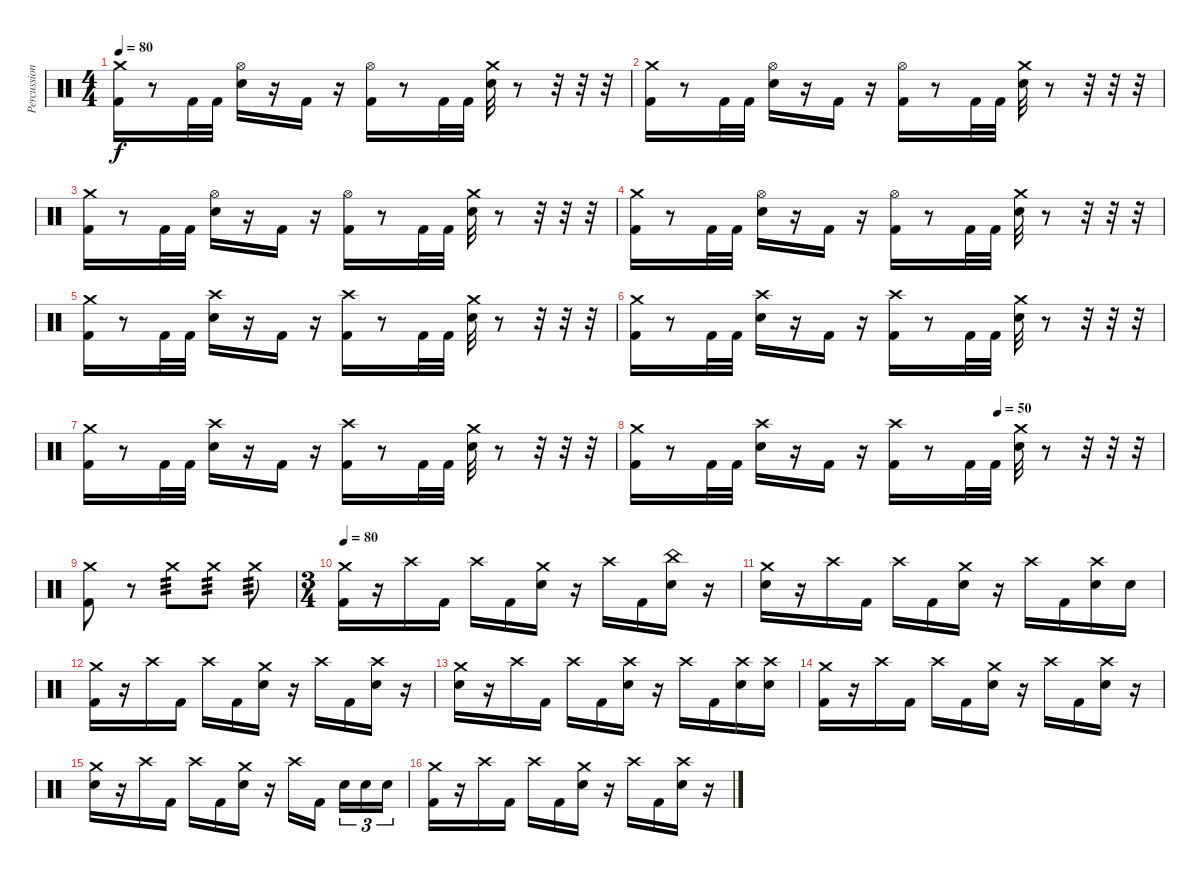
\track ("Percussion" "Percussion") {instrument percussion}
\staff {score}
\articulation defaults
\ts (4 4)
\tempo 80
\clef neutral
\ks c
("Kick (hit) 2" "Crash medium (hit)").16{dy f} r.8 "Kick (hit) 2".32 "Kick (hit) 2".32 ("Hi-Hat (open)" "Electric Snare (hit)").16 r.16 "Kick (hit) 2".16 r.16 ("Kick (hit) 2" "Hi-Hat (open)").16 r.8 "Kick (hit) 2".32 "Kick (hit) 2".32 ("Electric Snare (hit)" "Crash medium (hit)").32 r.8 r.32 r.32 r.32 |
("Kick (hit) 2" "Crash medium (hit)").16 r.8 "Kick (hit) 2".32 "Kick (hit) 2".32 ("Hi-Hat (open)" "Electric Snare (hit)").16 r.16 "Kick (hit) 2".16 r.16 ("Kick (hit) 2" "Hi-Hat (open)").16 r.8 "Kick (hit) 2".32 "Kick (hit) 2".32 ("Electric Snare (hit)" "Crash medium (hit)").32 r.8 r.32 r.32 r.32 |
("Kick (hit) 2" "Crash medium (hit)").16 r.8 "Kick (hit) 2".32 "Kick (hit) 2".32 ("Hi-Hat (open)" "Electric Snare (hit)").16 r.16 "Kick (hit) 2".16 r.16 ("Kick (hit) 2" "Hi-Hat (open)").16 r.8 "Kick (hit) 2".32 "Kick (hit) 2".32 ("Electric Snare (hit)" "Crash medium (hit)").32 r.8 r.32 r.32 r.32 |
("Kick (hit) 2" "Crash medium (hit)").16 r.8 "Kick (hit) 2".32 "Kick (hit) 2".32 ("Hi-Hat (open)" "Electric Snare (hit)").16 r.16 "Kick (hit) 2".16 r.16 ("Kick (hit) 2" "Hi-Hat (open)").16 r.8 "Kick (hit) 2".32 "Kick (hit) 2".32 ("Electric Snare (hit)" "Crash medium (hit)").32 r.8 r.32 r.32 r.32 |
("Kick (hit) 2" "Crash medium (hit)").16 r.8 "Kick (hit) 2".32 "Kick (hit) 2".32 ("Crash high (hit)" "Electric Snare (hit)").16 r.16 "Kick (hit) 2".16 r.16 ("Kick (hit) 2" "Crash high (hit)").16 r.8 "Kick (hit) 2".32 "Kick (hit) 2".32 ("Electric Snare (hit)" "Crash medium (hit)").32 r.8 r.32 r.32 r.32 |
("Kick (hit) 2" "Crash medium (hit)").16 r.8 "Kick (hit) 2".32 "Kick (hit) 2".32 ("Crash high (hit)" "Electric Snare (hit)").16 r.16 "Kick (hit) 2".16 r.16 ("Kick (hit) 2" "Crash high (hit)").16 r.8 "Kick (hit) 2".32 "Kick (hit) 2".32 ("Electric Snare (hit)" "Crash medium (hit)").32 r.8 r.32 r.32 r.32 |
("Kick (hit) 2" "Crash medium (hit)").16 r.8 "Kick (hit) 2".32 "Kick (hit) 2".32 ("Crash high (hit)" "Electric Snare (hit)").16 r.16 "Kick (hit) 2".16 r.16 ("Kick (hit) 2" "Crash high (hit)").16 r.8 "Kick (hit) 2".32 "Kick (hit) 2".32 ("Electric Snare (hit)" "Crash medium (hit)").32 r.8 r.32 r.32 r.32 |
\tempo (50 0.6875)
("Kick (hit) 2" "Crash medium (hit)").16 r.8 "Kick (hit) 2".32 "Kick (hit) 2".32 ("Crash high (hit)" "Electric Snare (hit)").16 r.16 "Kick (hit) 2".16 r.16 ("Kick (hit) 2" "Crash high (hit)").16 r.8 "Kick (hit) 2".32 "Kick (hit) 2".32 ("Electric Snare (hit)" "Crash medium (hit)").32 r.8 r.32 r.32 r.32 |
("Crash medium (hit)" "Kick (hit) 2").8 r.8 "Crash medium (hit)".8{tp 3} "Crash medium (hit)".8{tp 3} "Crash medium (hit)".8{tp 3} |
\ts (3 4)
\tempo 80
("Crash medium (hit)" "Kick (hit) 2").16 r.16 "Crash high (hit)".16 "Kick (hit) 2".16 "Crash high (hit)".16 "Kick (hit) 2".16 ("Crash medium (hit)" "Electric Snare (hit)").16 r.16 "Crash high (hit)".16 "Kick (hit) 2".16 ("China (hit)" "Electric Snare (hit)").16 r.16 |
("Crash medium (hit)" "Electric Snare (hit)").16 r.16 "Crash high (hit)".16 "Kick (hit) 2".16 "Crash high (hit)".16 "Kick (hit) 2".16 ("Crash medium (hit)" "Electric Snare (hit)").16 r.16 "Crash high (hit)".16 "Kick (hit) 2".16 ("Crash high (hit)" "Electric Snare (hit)").16 "Electric Snare (hit)".16 |
("Crash medium (hit)" "Kick (hit) 2").16 r.16 "Crash high (hit)".16 "Kick (hit) 2".16 "Crash high (hit)".16 "Kick (hit) 2".16 ("Crash medium (hit)" "Electric Snare (hit)").16 r.16 "Crash high (hit)".16 "Kick (hit) 2".16 ("Crash high (hit)" "Electric Snare (hit)").16 r.16 |
("Crash medium (hit)" "Electric Snare (hit)").16 r.16 "Crash high (hit)".16 "Kick (hit) 2".16 "Crash high (hit)".16 "Kick (hit) 2".16 ("Crash high (hit)" "Electric Snare (hit)").16 r.16 "Crash high (hit)".16 "Kick (hit) 2".16 ("Crash high (hit)" "Electric Snare (hit)").16 ("Crash high (hit)" "Electric Snare (hit)").16 |
("Crash medium (hit)" "Kick (hit) 2").16 r.16 "Crash high (hit)".16 "Kick (hit) 2".16 "Crash high (hit)".16 "Kick (hit) 2".16 ("Crash medium (hit)" "Electric Snare (hit)").16 r.16 "Crash high (hit)".16 "Kick (hit) 2".16 ("Crash high (hit)" "Electric Snare (hit)").16 r.16 |
("Crash medium (hit)" "Electric Snare (hit)").16 r.16 "Crash high (hit)".16 "Kick (hit) 2".16 "Crash high (hit)".16 "Kick (hit) 2".16 ("Crash medium (hit)" "Electric Snare (hit)").16 r.16 "Crash high (hit)".16 "Kick (hit) 2".16{beam splitsecondary} "Electric Snare (hit)".16{tu (3 2)} "Electric Snare (hit)".16{tu (3 2)} "Electric Snare (hit)".16{tu (3 2)} |
("Crash medium (hit)" "Kick (hit) 2").16 r.16 "Crash high (hit)".16 "Kick (hit) 2".16 "Crash high (hit)".16 "Kick (hit) 2".16 ("Crash medium (hit)" "Electric Snare (hit)").16 r.16 "Crash high (hit)".16 "Kick (hit) 2".16 ("Crash high (hit)" "Electric Snare (hit)").16 r.16
